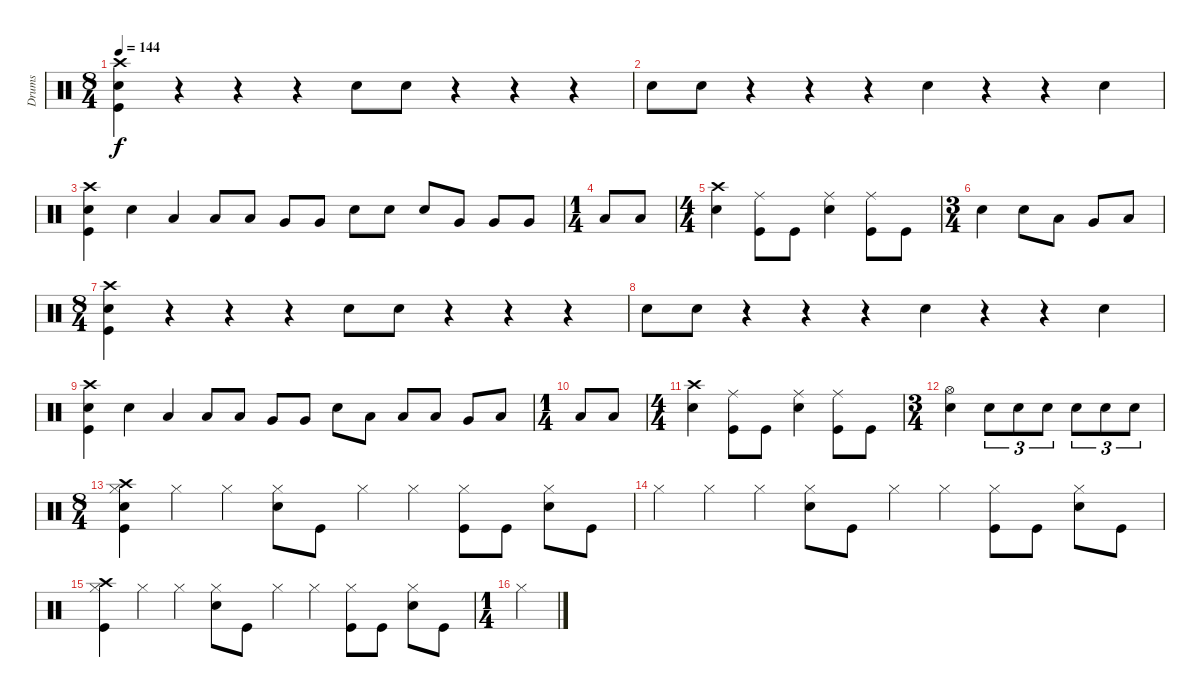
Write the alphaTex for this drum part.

\track ("Drums" "Drums") {instrument percussion}
\staff {score}
\articulation defaults
\ts (8 4)
\tempo 144
\clef neutral
\ks c
("Crash high (hit)" "Snare (hit) 2" "Kick (hit)").4{dy f} r.4 r.4 r.4 "Snare (hit) 2".8 "Snare (hit) 2".8 r.4 r.4 r.4 |
"Snare (hit) 2".8 "Snare (hit) 2".8 r.4 r.4 r.4 "Snare (hit) 2".4 r.4 r.4 "Snare (hit) 2".4 |
("Crash high (hit)" "Snare (hit) 2" "Kick (hit)").4 "Snare (hit) 2".4 "Low Tom (hit)".4 "Low Tom (hit)".8 "Low Tom (hit)".8 "Very Low Tom (hit)".8 "Very Low Tom (hit)".8 "Snare (hit) 2".8 "Snare (hit) 2".8 "Snare (hit) 2".8 "Very Low Tom (hit)".8 "Very Low Tom (hit)".8 "Very Low Tom (hit)".8 |
\ts (1 4)
"Low Floor Tom (hit)".8 "Low Floor Tom (hit)".8 |
\ts (4 4)
("Crash high (hit)" "Snare (hit) 2").4 ("Ride (middle)" "Kick (hit)").8 "Kick (hit)".8 ("Ride (middle)" "Snare (hit) 2").4 ("Ride (middle)" "Kick (hit)").8 "Kick (hit)".8 |
\ts (3 4)
"Snare (hit) 2".4 "Snare (hit) 2".8 "Low Tom (hit)".8 "Very Low Tom (hit)".8 "Low Floor Tom (hit)".8 |
\ts (8 4)
("Crash high (hit)" "Snare (hit) 2" "Kick (hit)").4 r.4 r.4 r.4 "Snare (hit) 2".8 "Snare (hit) 2".8 r.4 r.4 r.4 |
"Snare (hit) 2".8 "Snare (hit) 2".8 r.4 r.4 r.4 "Snare (hit) 2".4 r.4 r.4 "Snare (hit) 2".4 |
("Crash high (hit)" "Snare (hit) 2" "Kick (hit)").4 "Snare (hit) 2".4 "Low Tom (hit)".4 "Low Tom (hit)".8 "Low Tom (hit)".8 "Very Low Tom (hit)".8 "Very Low Tom (hit)".8 "Snare (hit) 2".8 "Low Floor Tom (hit)".8 "Low Tom (hit)".8 "Low Floor Tom (hit)".8 "Very Low Tom (hit)".8 "Low Floor Tom (hit)".8 |
\ts (1 4)
"Low Floor Tom (hit)".8 "Low Floor Tom (hit)".8 |
\ts (4 4)
("Crash high (hit)" "Snare (hit) 2").4 ("Ride (middle)" "Kick (hit)").8 "Kick (hit)".8 ("Ride (middle)" "Snare (hit) 2").4 ("Ride (middle)" "Kick (hit)").8 "Kick (hit)".8 |
\ts (3 4)
("Hi-Hat (open)" "Snare (hit) 2").4 "Snare (hit) 2".8{tu (3 2)} "Snare (hit) 2".8{tu (3 2)} "Snare (hit) 2".8{tu (3 2)} "Snare (hit) 2".8{tu (3 2)} "Snare (hit) 2".8{tu (3 2)} "Snare (hit) 2".8{tu (3 2)} |
\ts (8 4)
("Crash high (hit)" "Hi-Hat (closed)" "Snare (hit) 2" "Kick (hit)").4 "Hi-Hat (closed)".4 "Hi-Hat (closed)".4 ("Hi-Hat (closed)" "Snare (hit) 2").8 "Kick (hit)".8 "Hi-Hat (closed)".4 "Hi-Hat (closed)".4 ("Hi-Hat (closed)" "Kick (hit)").8 "Kick (hit)".8 ("Hi-Hat (closed)" "Snare (hit) 2").8 "Kick (hit)".8 |
"Hi-Hat (closed)".4 "Hi-Hat (closed)".4 "Hi-Hat (closed)".4 ("Hi-Hat (closed)" "Snare (hit) 2").8 "Kick (hit)".8 "Hi-Hat (closed)".4 "Hi-Hat (closed)".4 ("Hi-Hat (closed)" "Kick (hit)").8 "Kick (hit)".8 ("Hi-Hat (closed)" "Snare (hit) 2").8 "Kick (hit)".8 |
("Crash high (hit)" "Hi-Hat (closed)" "Kick (hit)").4 "Hi-Hat (closed)".4 "Hi-Hat (closed)".4 ("Hi-Hat (closed)" "Snare (hit) 2").8 "Kick (hit)".8 "Hi-Hat (closed)".4 "Hi-Hat (closed)".4 ("Hi-Hat (closed)" "Kick (hit)").8 "Kick (hit)".8 ("Hi-Hat (closed)" "Snare (hit) 2").8 "Kick (hit)".8 |
\ts (1 4)
"Hi-Hat (closed)".4
